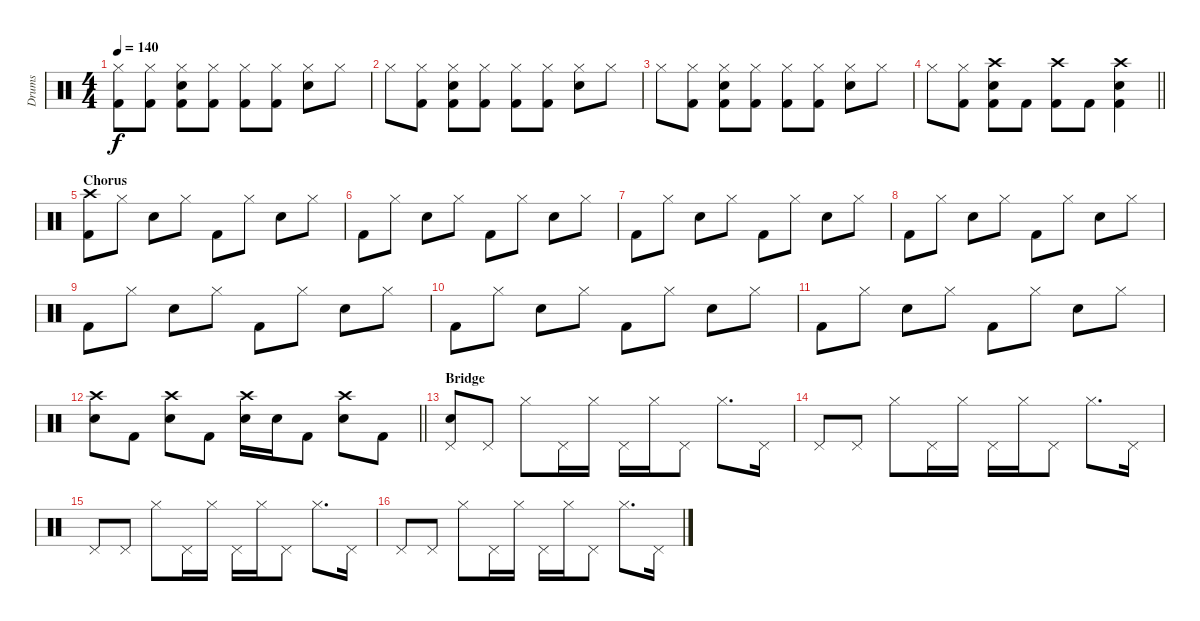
\track ("Drums" "Drums") {instrument percussion}
\staff {score}
\articulation defaults
\ts (4 4)
\tempo 140
\clef neutral
\ks c
("Hi-Hat (closed)" "Kick (hit) 2").8{dy f} ("Hi-Hat (closed)" "Kick (hit) 2").8 ("Hi-Hat (closed)" "Kick (hit) 2" "Snare (hit) 2").8 ("Hi-Hat (closed)" "Kick (hit) 2").8 ("Hi-Hat (closed)" "Kick (hit) 2").8 ("Hi-Hat (closed)" "Kick (hit) 2").8 ("Hi-Hat (closed)" "Snare (hit) 2").8 "Hi-Hat (closed)".8 |
"Hi-Hat (closed)".8 ("Hi-Hat (closed)" "Kick (hit) 2").8 ("Hi-Hat (closed)" "Kick (hit) 2" "Snare (hit) 2").8 ("Hi-Hat (closed)" "Kick (hit) 2").8 ("Hi-Hat (closed)" "Kick (hit) 2").8 ("Hi-Hat (closed)" "Kick (hit) 2").8 ("Hi-Hat (closed)" "Snare (hit) 2").8 "Hi-Hat (closed)".8 |
"Hi-Hat (closed)".8 ("Hi-Hat (closed)" "Kick (hit) 2").8 ("Hi-Hat (closed)" "Kick (hit) 2" "Snare (hit) 2").8 ("Hi-Hat (closed)" "Kick (hit) 2").8 ("Hi-Hat (closed)" "Kick (hit) 2").8 ("Hi-Hat (closed)" "Kick (hit) 2").8 ("Hi-Hat (closed)" "Snare (hit) 2").8 "Hi-Hat (closed)".8 |
\barLineRight lightlight "Hi-Hat (closed)".8
("Hi-Hat (closed)" "Kick (hit) 2").8 ("Crash high (hit)" "Kick (hit) 2" "Snare (hit) 2").8 "Kick (hit) 2".8 ("Crash high (hit)" "Kick (hit) 2").8 "Kick (hit) 2".8 ("Crash high (hit)" "Snare (hit) 2" "Kick (hit) 2").4 |
\section ("" "Chorus")
("Kick (hit) 2" "Crash high (hit)").8 "Hi-Hat (closed)".8 "Snare (hit) 2".8 "Hi-Hat (closed)".8 "Kick (hit) 2".8 "Hi-Hat (closed)".8 "Snare (hit) 2".8 "Hi-Hat (closed)".8 |
"Kick (hit) 2".8 "Hi-Hat (closed)".8 "Snare (hit) 2".8 "Hi-Hat (closed)".8 "Kick (hit) 2".8 "Hi-Hat (closed)".8 "Snare (hit) 2".8 "Hi-Hat (closed)".8 |
"Kick (hit) 2".8 "Hi-Hat (closed)".8 "Snare (hit) 2".8 "Hi-Hat (closed)".8 "Kick (hit) 2".8 "Hi-Hat (closed)".8 "Snare (hit) 2".8 "Hi-Hat (closed)".8 |
"Kick (hit) 2".8 "Hi-Hat (closed)".8 "Snare (hit) 2".8 "Hi-Hat (closed)".8 "Kick (hit) 2".8 "Hi-Hat (closed)".8 "Snare (hit) 2".8 "Hi-Hat (closed)".8 |
"Kick (hit) 2".8 "Hi-Hat (closed)".8 "Snare (hit) 2".8 "Hi-Hat (closed)".8 "Kick (hit) 2".8 "Hi-Hat (closed)".8 "Snare (hit) 2".8 "Hi-Hat (closed)".8 |
"Kick (hit) 2".8 "Hi-Hat (closed)".8 "Snare (hit) 2".8 "Hi-Hat (closed)".8 "Kick (hit) 2".8 "Hi-Hat (closed)".8 "Snare (hit) 2".8 "Hi-Hat (closed)".8 |
"Kick (hit) 2".8 "Hi-Hat (closed)".8 "Snare (hit) 2".8 "Hi-Hat (closed)".8 "Kick (hit) 2".8 "Hi-Hat (closed)".8 "Snare (hit) 2".8 "Hi-Hat (closed)".8 |
\barLineRight lightlight
("Snare (hit) 2" "Crash high (hit)").8 "Kick (hit) 2".8 ("Snare (hit) 2" "Crash high (hit)").8 "Kick (hit) 2".8 ("Snare (hit) 2" "Crash high (hit)").16 "Snare (hit) 2".16 "Kick (hit) 2".8 ("Snare (hit) 2" "Crash high (hit)").8 "Kick (hit) 2".8 |
\section ("" "Bridge")
("Pedal Hi-Hat (hit)" "Snare (hit) 2").8 "Pedal Hi-Hat (hit)".8 "Hi-Hat (closed)".8 "Pedal Hi-Hat (hit)".16 "Hi-Hat (closed)".16 "Pedal Hi-Hat (hit)".16 "Hi-Hat (closed)".16 "Pedal Hi-Hat (hit)".8 "Hi-Hat (closed)".8{d} "Pedal Hi-Hat (hit)".16 |
"Pedal Hi-Hat (hit)".8 "Pedal Hi-Hat (hit)".8 "Hi-Hat (closed)".8 "Pedal Hi-Hat (hit)".16 "Hi-Hat (closed)".16 "Pedal Hi-Hat (hit)".16 "Hi-Hat (closed)".16 "Pedal Hi-Hat (hit)".8 "Hi-Hat (closed)".8{d} "Pedal Hi-Hat (hit)".16 |
"Pedal Hi-Hat (hit)".8 "Pedal Hi-Hat (hit)".8 "Hi-Hat (closed)".8 "Pedal Hi-Hat (hit)".16 "Hi-Hat (closed)".16 "Pedal Hi-Hat (hit)".16 "Hi-Hat (closed)".16 "Pedal Hi-Hat (hit)".8 "Hi-Hat (closed)".8{d} "Pedal Hi-Hat (hit)".16 |
"Pedal Hi-Hat (hit)".8 "Pedal Hi-Hat (hit)".8 "Hi-Hat (closed)".8 "Pedal Hi-Hat (hit)".16 "Hi-Hat (closed)".16 "Pedal Hi-Hat (hit)".16 "Hi-Hat (closed)".16 "Pedal Hi-Hat (hit)".8 "Hi-Hat (closed)".8{d} "Pedal Hi-Hat (hit)".16
